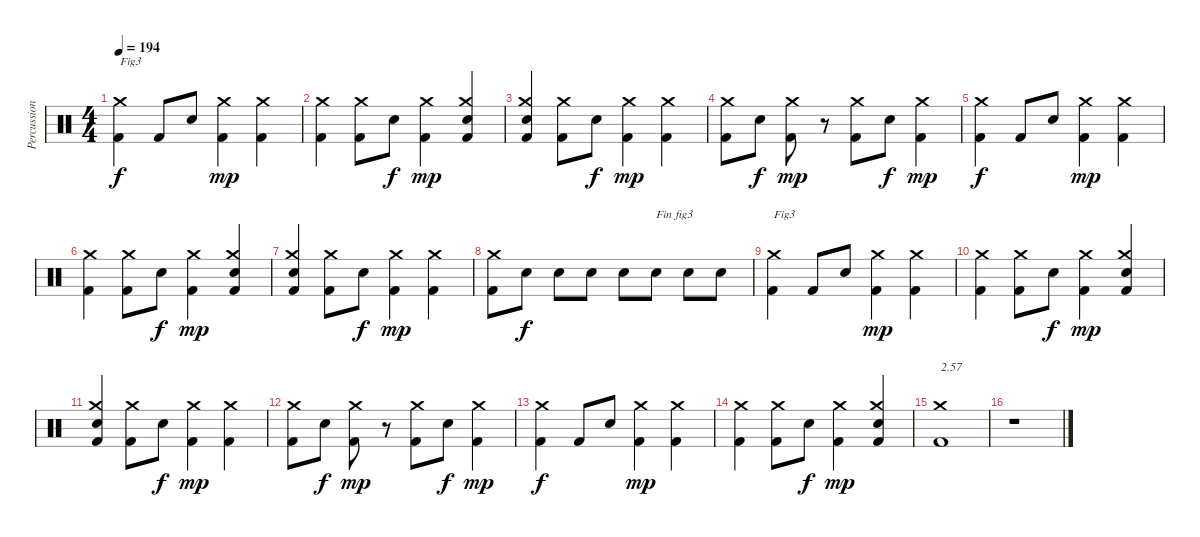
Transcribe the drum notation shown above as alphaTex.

\track ("Percussions" "Percussion") {instrument percussion}
\staff {score}
\articulation defaults
\ts (4 4)
\tempo 194
\clef neutral
\ks c
("Kick (hit) 2" "Crash medium (hit)").4{txt "Fig3" dy f} "Kick (hit) 2".8 "Electric Snare (hit)".8 ("Kick (hit) 2" "Crash medium (hit)").4{dy mp} ("Kick (hit) 2" "Crash medium (hit)").4 |
("Kick (hit) 2" "Crash medium (hit)").4 ("Kick (hit) 2" "Crash medium (hit)").8 "Electric Snare (hit)".8{dy f} ("Kick (hit) 2" "Crash medium (hit)").4{dy mp} ("Kick (hit) 2" "Electric Snare (hit)" "Crash medium (hit)").4 |
("Kick (hit) 2" "Electric Snare (hit)" "Crash medium (hit)").4 ("Kick (hit) 2" "Crash medium (hit)").8 "Electric Snare (hit)".8{dy f} ("Kick (hit) 2" "Crash medium (hit)").4{dy mp} ("Kick (hit) 2" "Crash medium (hit)").4 |
("Kick (hit) 2" "Crash medium (hit)").8 "Electric Snare (hit)".8{dy f} ("Kick (hit) 2" "Crash medium (hit)").8{dy mp} r.8 ("Kick (hit) 2" "Crash medium (hit)").8 "Electric Snare (hit)".8{dy f} ("Kick (hit) 2" "Crash medium (hit)").4{dy mp} |
("Kick (hit) 2" "Crash medium (hit)").4{dy f} "Kick (hit) 2".8 "Electric Snare (hit)".8 ("Kick (hit) 2" "Crash medium (hit)").4{dy mp} ("Kick (hit) 2" "Crash medium (hit)").4 |
("Kick (hit) 2" "Crash medium (hit)").4 ("Kick (hit) 2" "Crash medium (hit)").8 "Electric Snare (hit)".8{dy f} ("Kick (hit) 2" "Crash medium (hit)").4{dy mp} ("Kick (hit) 2" "Electric Snare (hit)" "Crash medium (hit)").4 |
("Kick (hit) 2" "Electric Snare (hit)" "Crash medium (hit)").4 ("Kick (hit) 2" "Crash medium (hit)").8 "Electric Snare (hit)".8{dy f} ("Kick (hit) 2" "Crash medium (hit)").4{dy mp} ("Kick (hit) 2" "Crash medium (hit)").4 |
("Kick (hit) 2" "Crash medium (hit)").8 "Electric Snare (hit)".8{dy f} "Electric Snare (hit)".8 "Electric Snare (hit)".8 "Electric Snare (hit)".8 "Electric Snare (hit)".8{txt "Fin fig3"} "Electric Snare (hit)".8 "Electric Snare (hit)".8 |
("Kick (hit) 2" "Crash medium (hit)").4{txt "Fig3"} "Kick (hit) 2".8 "Electric Snare (hit)".8 ("Kick (hit) 2" "Crash medium (hit)").4{dy mp} ("Kick (hit) 2" "Crash medium (hit)").4 |
("Kick (hit) 2" "Crash medium (hit)").4 ("Kick (hit) 2" "Crash medium (hit)").8 "Electric Snare (hit)".8{dy f} ("Kick (hit) 2" "Crash medium (hit)").4{dy mp} ("Kick (hit) 2" "Electric Snare (hit)" "Crash medium (hit)").4 |
("Kick (hit) 2" "Electric Snare (hit)" "Crash medium (hit)").4 ("Kick (hit) 2" "Crash medium (hit)").8 "Electric Snare (hit)".8{dy f} ("Kick (hit) 2" "Crash medium (hit)").4{dy mp} ("Kick (hit) 2" "Crash medium (hit)").4 |
("Kick (hit) 2" "Crash medium (hit)").8 "Electric Snare (hit)".8{dy f} ("Kick (hit) 2" "Crash medium (hit)").8{dy mp} r.8 ("Kick (hit) 2" "Crash medium (hit)").8 "Electric Snare (hit)".8{dy f} ("Kick (hit) 2" "Crash medium (hit)").4{dy mp} |
("Kick (hit) 2" "Crash medium (hit)").4{dy f} "Kick (hit) 2".8 "Electric Snare (hit)".8 ("Kick (hit) 2" "Crash medium (hit)").4{dy mp} ("Kick (hit) 2" "Crash medium (hit)").4 |
("Kick (hit) 2" "Crash medium (hit)").4 ("Kick (hit) 2" "Crash medium (hit)").8 "Electric Snare (hit)".8{dy f} ("Kick (hit) 2" "Crash medium (hit)").4{dy mp} ("Kick (hit) 2" "Electric Snare (hit)" "Crash medium (hit)").4 |
("Kick (hit) 2" "Crash medium (hit)").1{txt "2.57"} |
r.1
